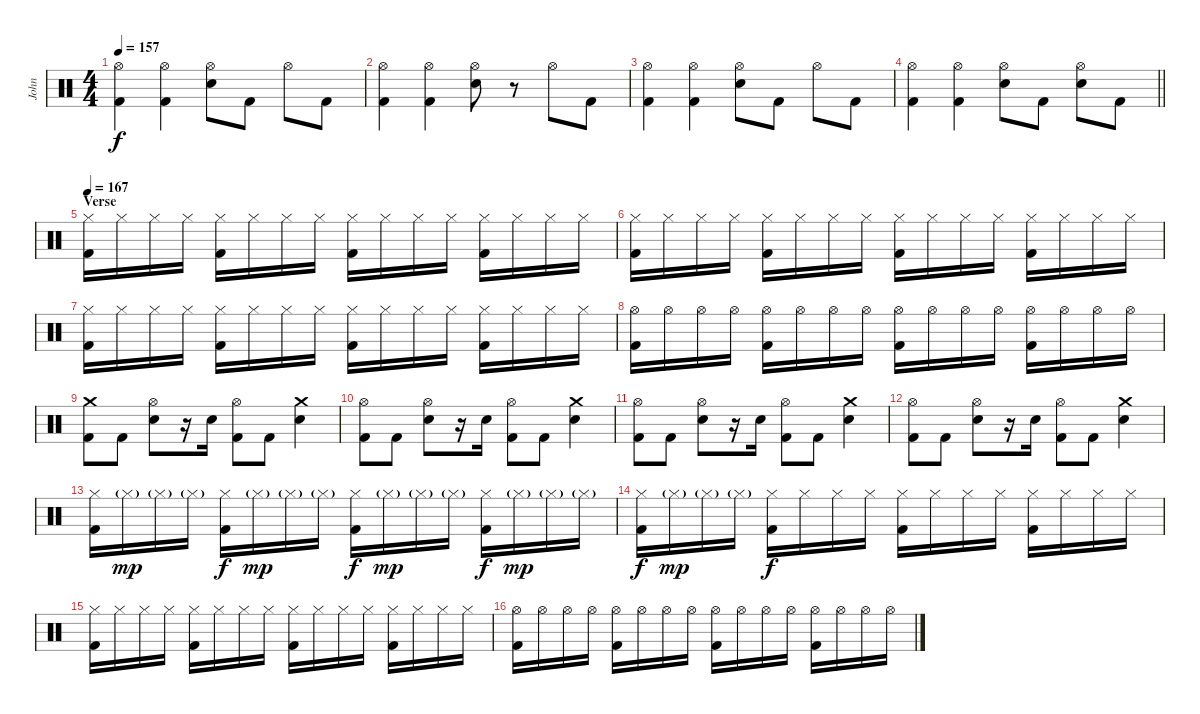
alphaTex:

\track ("John" "John") {instrument percussion}
\staff {score}
\articulation defaults
\ts (4 4)
\tempo 157
\clef neutral
\ks c
("Hi-Hat (open)" "Kick (hit) 2").4{dy f} ("Hi-Hat (open)" "Kick (hit) 2").4 ("Hi-Hat (open)" "Electric Snare (hit)").8 "Kick (hit) 2".8 "Hi-Hat (open)".8 "Kick (hit) 2".8 |
("Hi-Hat (open)" "Kick (hit) 2").4 ("Hi-Hat (open)" "Kick (hit) 2").4 ("Hi-Hat (open)" "Electric Snare (hit)").8 r.8 "Hi-Hat (open)".8 "Kick (hit) 2".8 |
("Hi-Hat (open)" "Kick (hit) 2").4 ("Hi-Hat (open)" "Kick (hit) 2").4 ("Hi-Hat (open)" "Electric Snare (hit)").8 "Kick (hit) 2".8 "Hi-Hat (open)".8 "Kick (hit) 2".8 |
\barLineRight lightlight
("Hi-Hat (open)" "Kick (hit) 2").4 ("Hi-Hat (open)" "Kick (hit) 2").4 ("Hi-Hat (open)" "Electric Snare (hit)").8 "Kick (hit) 2".8 ("Hi-Hat (open)" "Electric Snare (hit)").8 "Kick (hit) 2".8 |
\section ("" "Verse")
\tempo 167
("Hi-Hat (closed)" "Kick (hit) 2").16 "Hi-Hat (closed)".16 "Hi-Hat (closed)".16 "Hi-Hat (closed)".16 ("Hi-Hat (closed)" "Kick (hit) 2").16 "Hi-Hat (closed)".16 "Hi-Hat (closed)".16 "Hi-Hat (closed)".16 ("Hi-Hat (closed)" "Kick (hit) 2").16 "Hi-Hat (closed)".16 "Hi-Hat (closed)".16 "Hi-Hat (closed)".16 ("Hi-Hat (closed)" "Kick (hit) 2").16 "Hi-Hat (closed)".16 "Hi-Hat (closed)".16 "Hi-Hat (closed)".16 |
("Hi-Hat (closed)" "Kick (hit) 2").16 "Hi-Hat (closed)".16 "Hi-Hat (closed)".16 "Hi-Hat (closed)".16 ("Hi-Hat (closed)" "Kick (hit) 2").16 "Hi-Hat (closed)".16 "Hi-Hat (closed)".16 "Hi-Hat (closed)".16 ("Hi-Hat (closed)" "Kick (hit) 2").16 "Hi-Hat (closed)".16 "Hi-Hat (closed)".16 "Hi-Hat (closed)".16 ("Hi-Hat (closed)" "Kick (hit) 2").16 "Hi-Hat (closed)".16 "Hi-Hat (closed)".16 "Hi-Hat (closed)".16 |
("Hi-Hat (closed)" "Kick (hit) 2").16 "Hi-Hat (closed)".16 "Hi-Hat (closed)".16 "Hi-Hat (closed)".16 ("Hi-Hat (closed)" "Kick (hit) 2").16 "Hi-Hat (closed)".16 "Hi-Hat (closed)".16 "Hi-Hat (closed)".16 ("Hi-Hat (closed)" "Kick (hit) 2").16 "Hi-Hat (closed)".16 "Hi-Hat (closed)".16 "Hi-Hat (closed)".16 ("Hi-Hat (closed)" "Kick (hit) 2").16 "Hi-Hat (closed)".16 "Hi-Hat (closed)".16 "Hi-Hat (closed)".16 |
("Hi-Hat (open)" "Kick (hit) 2").16 "Hi-Hat (open)".16 "Hi-Hat (open)".16 "Hi-Hat (open)".16 ("Hi-Hat (open)" "Kick (hit) 2").16 "Hi-Hat (open)".16 "Hi-Hat (open)".16 "Hi-Hat (open)".16 ("Hi-Hat (open)" "Kick (hit) 2").16 "Hi-Hat (open)".16 "Hi-Hat (open)".16 "Hi-Hat (open)".16 ("Hi-Hat (open)" "Kick (hit) 2").16 "Hi-Hat (open)".16 "Hi-Hat (open)".16 "Hi-Hat (open)".16 |
("Crash medium (hit)" "Kick (hit) 2").8 "Kick (hit) 2".8 ("Hi-Hat (open)" "Electric Snare (hit)").8 r.16 "Electric Snare (hit)".16 ("Hi-Hat (open)" "Kick (hit) 2").8 "Kick (hit) 2".8 ("Crash medium (hit)" "Electric Snare (hit)").4 |
("Hi-Hat (open)" "Kick (hit) 2").8 "Kick (hit) 2".8 ("Hi-Hat (open)" "Electric Snare (hit)").8 r.16 "Electric Snare (hit)".16 ("Hi-Hat (open)" "Kick (hit) 2").8 "Kick (hit) 2".8 ("Crash medium (hit)" "Electric Snare (hit)").4 |
("Hi-Hat (open)" "Kick (hit) 2").8 "Kick (hit) 2".8 ("Hi-Hat (open)" "Electric Snare (hit)").8 r.16 "Electric Snare (hit)".16 ("Hi-Hat (open)" "Kick (hit) 2").8 "Kick (hit) 2".8 ("Crash medium (hit)" "Electric Snare (hit)").4 |
("Hi-Hat (open)" "Kick (hit) 2").8 "Kick (hit) 2".8 ("Hi-Hat (open)" "Electric Snare (hit)").8 r.16 "Electric Snare (hit)".16 ("Hi-Hat (open)" "Kick (hit) 2").8 "Kick (hit) 2".8 ("Crash medium (hit)" "Electric Snare (hit)").4 |
("Hi-Hat (closed)" "Kick (hit) 2").16 "Hi-Hat (closed)"{g}.16{dy mp} "Hi-Hat (closed)"{g}.16 "Hi-Hat (closed)"{g}.16 ("Hi-Hat (closed)" "Kick (hit) 2").16{dy f} "Hi-Hat (closed)"{g}.16{dy mp} "Hi-Hat (closed)"{g}.16 "Hi-Hat (closed)"{g}.16 ("Hi-Hat (closed)" "Kick (hit) 2").16{dy f} "Hi-Hat (closed)"{g}.16{dy mp} "Hi-Hat (closed)"{g}.16 "Hi-Hat (closed)"{g}.16 ("Hi-Hat (closed)" "Kick (hit) 2").16{dy f} "Hi-Hat (closed)"{g}.16{dy mp} "Hi-Hat (closed)"{g}.16 "Hi-Hat (closed)"{g}.16 |
("Hi-Hat (closed)" "Kick (hit) 2").16{dy f} "Hi-Hat (closed)"{g}.16{dy mp} "Hi-Hat (closed)"{g}.16 "Hi-Hat (closed)"{g}.16 ("Hi-Hat (closed)" "Kick (hit) 2").16{dy f} "Hi-Hat (closed)".16 "Hi-Hat (closed)".16 "Hi-Hat (closed)".16 ("Hi-Hat (closed)" "Kick (hit) 2").16 "Hi-Hat (closed)".16 "Hi-Hat (closed)".16 "Hi-Hat (closed)".16 ("Hi-Hat (closed)" "Kick (hit) 2").16 "Hi-Hat (closed)".16 "Hi-Hat (closed)".16 "Hi-Hat (closed)".16 |
("Hi-Hat (closed)" "Kick (hit) 2").16 "Hi-Hat (closed)".16 "Hi-Hat (closed)".16 "Hi-Hat (closed)".16 ("Hi-Hat (closed)" "Kick (hit) 2").16 "Hi-Hat (closed)".16 "Hi-Hat (closed)".16 "Hi-Hat (closed)".16 ("Hi-Hat (closed)" "Kick (hit) 2").16 "Hi-Hat (closed)".16 "Hi-Hat (closed)".16 "Hi-Hat (closed)".16 ("Hi-Hat (closed)" "Kick (hit) 2").16 "Hi-Hat (closed)".16 "Hi-Hat (closed)".16 "Hi-Hat (closed)".16 |
("Hi-Hat (open)" "Kick (hit) 2").16 "Hi-Hat (open)".16 "Hi-Hat (open)".16 "Hi-Hat (open)".16 ("Hi-Hat (open)" "Kick (hit) 2").16 "Hi-Hat (open)".16 "Hi-Hat (open)".16 "Hi-Hat (open)".16 ("Hi-Hat (open)" "Kick (hit) 2").16 "Hi-Hat (open)".16 "Hi-Hat (open)".16 "Hi-Hat (open)".16 ("Hi-Hat (open)" "Kick (hit) 2").16 "Hi-Hat (open)".16 "Hi-Hat (open)".16 "Hi-Hat (open)".16
